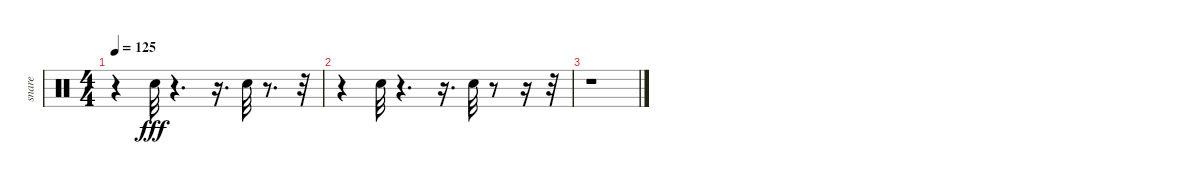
\track ("snare" "snare") {instrument percussion}
\staff {score}
\articulation defaults
\ts (4 4)
\tempo 125
\clef neutral
\ks c
r.4{dy fff} "Electric Snare (hit)".32 r.4{d} r.16{d} "Electric Snare (hit)".32 r.8{d} r.32 |
r.4 "Electric Snare (hit)".32 r.4{d} r.16{d} "Electric Snare (hit)".32 r.8 r.16 r.32 |
r.1
